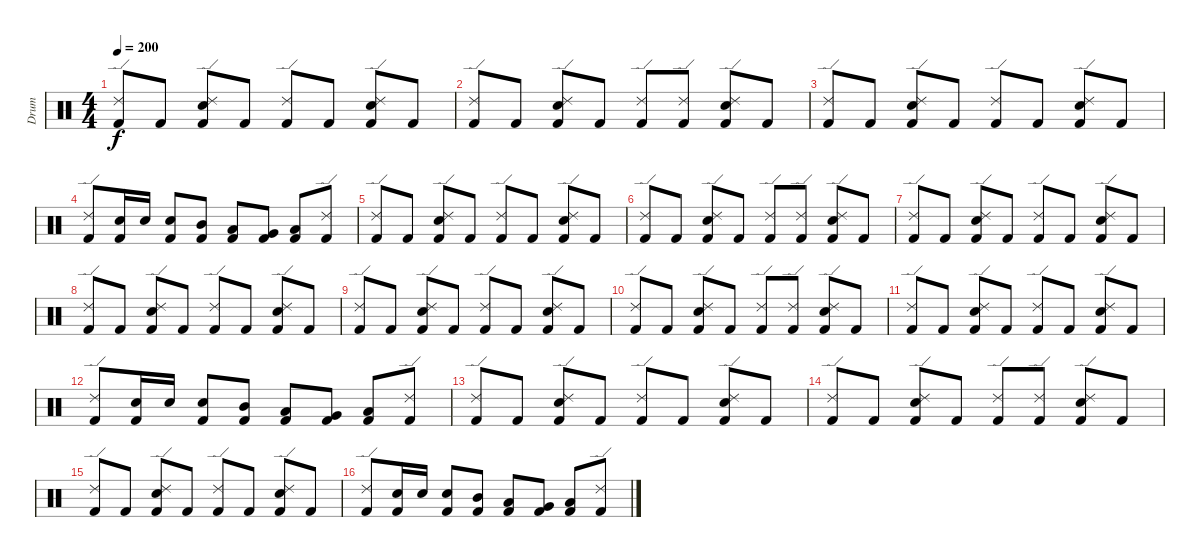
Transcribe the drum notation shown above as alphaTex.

\track ("Drum" "Drum") {instrument percussion}
\staff {score}
\articulation defaults
\ts (4 4)
\tempo 200
\clef neutral
\ks c
("Ride (edge) 2" "Kick (hit) 2").8{dy f} "Kick (hit) 2".8 ("Ride (edge) 2" "Electric Snare (hit)" "Kick (hit) 2").8 "Kick (hit) 2".8 ("Ride (edge) 2" "Kick (hit) 2").8 "Kick (hit) 2".8 ("Ride (edge) 2" "Electric Snare (hit)" "Kick (hit) 2").8 "Kick (hit) 2".8 |
("Ride (edge) 2" "Kick (hit) 2").8 "Kick (hit) 2".8 ("Ride (edge) 2" "Electric Snare (hit)" "Kick (hit) 2").8 "Kick (hit) 2".8 ("Ride (edge) 2" "Kick (hit) 2").8 ("Ride (edge) 2" "Kick (hit) 2").8 ("Ride (edge) 2" "Electric Snare (hit)" "Kick (hit) 2").8 "Kick (hit) 2".8 |
("Ride (edge) 2" "Kick (hit) 2").8 "Kick (hit) 2".8 ("Ride (edge) 2" "Electric Snare (hit)" "Kick (hit) 2").8 "Kick (hit) 2".8 ("Ride (edge) 2" "Kick (hit) 2").8 "Kick (hit) 2".8 ("Ride (edge) 2" "Electric Snare (hit)" "Kick (hit) 2").8 "Kick (hit) 2".8 |
("Ride (edge) 2" "Kick (hit) 2").8 ("Electric Snare (hit)" "Kick (hit) 2").16 "Electric Snare (hit)".16 ("Electric Snare (hit)" "Kick (hit) 2").8 ("Mid Tom (hit)" "Kick (hit) 2").8 ("Low Tom (hit)" "Kick (hit) 2").8 ("Very Low Tom (hit)" "Kick (hit) 2").8 ("Low Floor Tom (hit)" "Kick (hit) 2").8 ("Ride (edge) 2" "Kick (hit) 2").8 |
("Ride (edge) 2" "Kick (hit) 2").8 "Kick (hit) 2".8 ("Ride (edge) 2" "Electric Snare (hit)" "Kick (hit) 2").8 "Kick (hit) 2".8 ("Ride (edge) 2" "Kick (hit) 2").8 "Kick (hit) 2".8 ("Ride (edge) 2" "Electric Snare (hit)" "Kick (hit) 2").8 "Kick (hit) 2".8 |
("Ride (edge) 2" "Kick (hit) 2").8 "Kick (hit) 2".8 ("Ride (edge) 2" "Electric Snare (hit)" "Kick (hit) 2").8 "Kick (hit) 2".8 ("Ride (edge) 2" "Kick (hit) 2").8 ("Ride (edge) 2" "Kick (hit) 2").8 ("Ride (edge) 2" "Electric Snare (hit)" "Kick (hit) 2").8 "Kick (hit) 2".8 |
("Ride (edge) 2" "Kick (hit) 2").8 "Kick (hit) 2".8 ("Ride (edge) 2" "Electric Snare (hit)" "Kick (hit) 2").8 "Kick (hit) 2".8 ("Ride (edge) 2" "Kick (hit) 2").8 "Kick (hit) 2".8 ("Ride (edge) 2" "Electric Snare (hit)" "Kick (hit) 2").8 "Kick (hit) 2".8 |
("Ride (edge) 2" "Kick (hit) 2").8 "Kick (hit) 2".8 ("Ride (edge) 2" "Electric Snare (hit)" "Kick (hit) 2").8 "Kick (hit) 2".8 ("Ride (edge) 2" "Kick (hit) 2").8 "Kick (hit) 2".8 ("Ride (edge) 2" "Electric Snare (hit)" "Kick (hit) 2").8 "Kick (hit) 2".8 |
("Ride (edge) 2" "Kick (hit) 2").8 "Kick (hit) 2".8 ("Ride (edge) 2" "Electric Snare (hit)" "Kick (hit) 2").8 "Kick (hit) 2".8 ("Ride (edge) 2" "Kick (hit) 2").8 "Kick (hit) 2".8 ("Ride (edge) 2" "Electric Snare (hit)" "Kick (hit) 2").8 "Kick (hit) 2".8 |
("Ride (edge) 2" "Kick (hit) 2").8 "Kick (hit) 2".8 ("Ride (edge) 2" "Electric Snare (hit)" "Kick (hit) 2").8 "Kick (hit) 2".8 ("Ride (edge) 2" "Kick (hit) 2").8 ("Ride (edge) 2" "Kick (hit) 2").8 ("Ride (edge) 2" "Electric Snare (hit)" "Kick (hit) 2").8 "Kick (hit) 2".8 |
("Ride (edge) 2" "Kick (hit) 2").8 "Kick (hit) 2".8 ("Ride (edge) 2" "Electric Snare (hit)" "Kick (hit) 2").8 "Kick (hit) 2".8 ("Ride (edge) 2" "Kick (hit) 2").8 "Kick (hit) 2".8 ("Ride (edge) 2" "Electric Snare (hit)" "Kick (hit) 2").8 "Kick (hit) 2".8 |
("Ride (edge) 2" "Kick (hit) 2").8 ("Electric Snare (hit)" "Kick (hit) 2").16 "Electric Snare (hit)".16 ("Electric Snare (hit)" "Kick (hit) 2").8 ("Mid Tom (hit)" "Kick (hit) 2").8 ("Low Tom (hit)" "Kick (hit) 2").8 ("Very Low Tom (hit)" "Kick (hit) 2").8 ("Low Floor Tom (hit)" "Kick (hit) 2").8 ("Ride (edge) 2" "Kick (hit) 2").8 |
("Ride (edge) 2" "Kick (hit) 2").8 "Kick (hit) 2".8 ("Ride (edge) 2" "Electric Snare (hit)" "Kick (hit) 2").8 "Kick (hit) 2".8 ("Ride (edge) 2" "Kick (hit) 2").8 "Kick (hit) 2".8 ("Ride (edge) 2" "Electric Snare (hit)" "Kick (hit) 2").8 "Kick (hit) 2".8 |
("Ride (edge) 2" "Kick (hit) 2").8 "Kick (hit) 2".8 ("Ride (edge) 2" "Electric Snare (hit)" "Kick (hit) 2").8 "Kick (hit) 2".8 ("Ride (edge) 2" "Kick (hit) 2").8 ("Ride (edge) 2" "Kick (hit) 2").8 ("Ride (edge) 2" "Electric Snare (hit)" "Kick (hit) 2").8 "Kick (hit) 2".8 |
("Ride (edge) 2" "Kick (hit) 2").8 "Kick (hit) 2".8 ("Ride (edge) 2" "Electric Snare (hit)" "Kick (hit) 2").8 "Kick (hit) 2".8 ("Ride (edge) 2" "Kick (hit) 2").8 "Kick (hit) 2".8 ("Ride (edge) 2" "Electric Snare (hit)" "Kick (hit) 2").8 "Kick (hit) 2".8 |
("Ride (edge) 2" "Kick (hit) 2").8 ("Electric Snare (hit)" "Kick (hit) 2").16 "Electric Snare (hit)".16 ("Electric Snare (hit)" "Kick (hit) 2").8 ("Mid Tom (hit)" "Kick (hit) 2").8 ("Low Tom (hit)" "Kick (hit) 2").8 ("Very Low Tom (hit)" "Kick (hit) 2").8 ("Low Floor Tom (hit)" "Kick (hit) 2").8 ("Ride (edge) 2" "Kick (hit) 2").8
